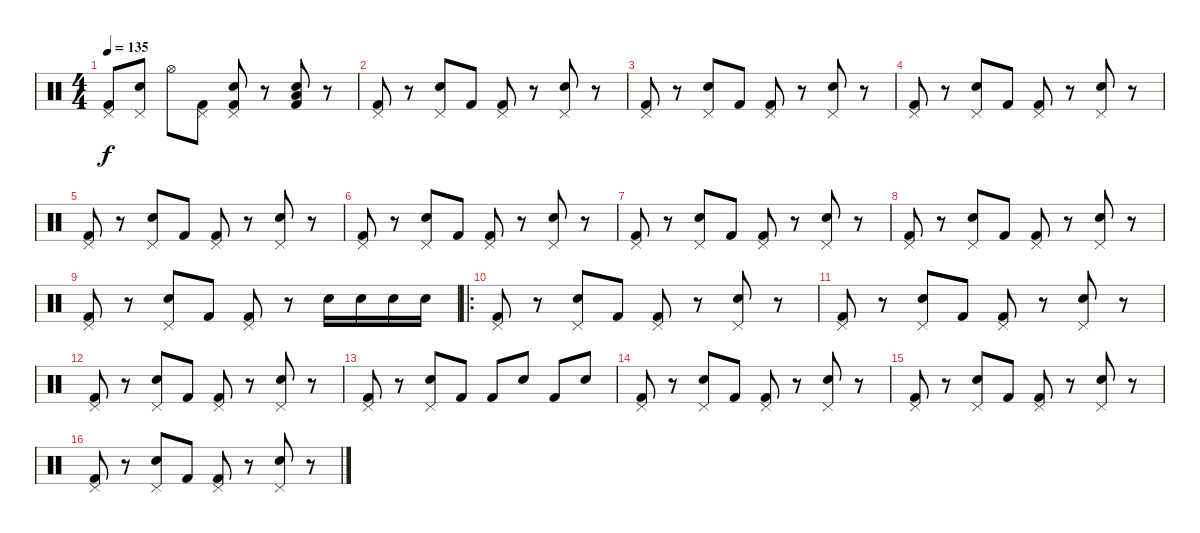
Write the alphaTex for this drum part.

\track "" {instrument percussion}
\staff {score}
\articulation defaults
\ts (4 4)
\tempo 135
\clef neutral
\ks c
("Kick (hit) 2" "Pedal Hi-Hat (hit)").8{dy f} ("Electric Snare (hit)" "Pedal Hi-Hat (hit)").8 "Hi-Hat (open)".8 ("Kick (hit) 2" "Pedal Hi-Hat (hit)").8 ("Electric Snare (hit)" "Pedal Hi-Hat (hit)" "Kick (hit) 2").8 r.8 ("Electric Snare (hit)" "Low Tom (hit)" "Kick (hit) 2").8 r.8 |
("Kick (hit) 2" "Pedal Hi-Hat (hit)").8 r.8 ("Electric Snare (hit)" "Pedal Hi-Hat (hit)").8 "Kick (hit) 2".8 ("Kick (hit) 2" "Pedal Hi-Hat (hit)").8 r.8 ("Electric Snare (hit)" "Pedal Hi-Hat (hit)").8 r.8 |
("Kick (hit) 2" "Pedal Hi-Hat (hit)").8 r.8 ("Electric Snare (hit)" "Pedal Hi-Hat (hit)").8 "Kick (hit) 2".8 ("Kick (hit) 2" "Pedal Hi-Hat (hit)").8 r.8 ("Electric Snare (hit)" "Pedal Hi-Hat (hit)").8 r.8 |
("Kick (hit) 2" "Pedal Hi-Hat (hit)").8 r.8 ("Electric Snare (hit)" "Pedal Hi-Hat (hit)").8 "Kick (hit) 2".8 ("Kick (hit) 2" "Pedal Hi-Hat (hit)").8 r.8 ("Electric Snare (hit)" "Pedal Hi-Hat (hit)").8 r.8 |
("Kick (hit) 2" "Pedal Hi-Hat (hit)").8 r.8 ("Electric Snare (hit)" "Pedal Hi-Hat (hit)").8 "Kick (hit) 2".8 ("Kick (hit) 2" "Pedal Hi-Hat (hit)").8 r.8 ("Electric Snare (hit)" "Pedal Hi-Hat (hit)").8 r.8 |
("Kick (hit) 2" "Pedal Hi-Hat (hit)").8 r.8 ("Electric Snare (hit)" "Pedal Hi-Hat (hit)").8 "Kick (hit) 2".8 ("Kick (hit) 2" "Pedal Hi-Hat (hit)").8 r.8 ("Electric Snare (hit)" "Pedal Hi-Hat (hit)").8 r.8 |
("Kick (hit) 2" "Pedal Hi-Hat (hit)").8 r.8 ("Electric Snare (hit)" "Pedal Hi-Hat (hit)").8 "Kick (hit) 2".8 ("Kick (hit) 2" "Pedal Hi-Hat (hit)").8 r.8 ("Electric Snare (hit)" "Pedal Hi-Hat (hit)").8 r.8 |
("Kick (hit) 2" "Pedal Hi-Hat (hit)").8 r.8 ("Electric Snare (hit)" "Pedal Hi-Hat (hit)").8 "Kick (hit) 2".8 ("Kick (hit) 2" "Pedal Hi-Hat (hit)").8 r.8 ("Electric Snare (hit)" "Pedal Hi-Hat (hit)").8 r.8 |
("Kick (hit) 2" "Pedal Hi-Hat (hit)").8 r.8 ("Electric Snare (hit)" "Pedal Hi-Hat (hit)").8 "Kick (hit) 2".8 ("Kick (hit) 2" "Pedal Hi-Hat (hit)").8 r.8 "Electric Snare (hit)".16 "Electric Snare (hit)".16 "Electric Snare (hit)".16 "Electric Snare (hit)".16 |
\ro
("Kick (hit) 2" "Pedal Hi-Hat (hit)").8 r.8 ("Electric Snare (hit)" "Pedal Hi-Hat (hit)").8 "Kick (hit) 2".8 ("Kick (hit) 2" "Pedal Hi-Hat (hit)").8 r.8 ("Electric Snare (hit)" "Pedal Hi-Hat (hit)").8 r.8 |
("Kick (hit) 2" "Pedal Hi-Hat (hit)").8 r.8 ("Electric Snare (hit)" "Pedal Hi-Hat (hit)").8 "Kick (hit) 2".8 ("Kick (hit) 2" "Pedal Hi-Hat (hit)").8 r.8 ("Electric Snare (hit)" "Pedal Hi-Hat (hit)").8 r.8 |
("Kick (hit) 2" "Pedal Hi-Hat (hit)").8 r.8 ("Electric Snare (hit)" "Pedal Hi-Hat (hit)").8 "Kick (hit) 2".8 ("Kick (hit) 2" "Pedal Hi-Hat (hit)").8 r.8 ("Electric Snare (hit)" "Pedal Hi-Hat (hit)").8 r.8 |
("Kick (hit) 2" "Pedal Hi-Hat (hit)").8 r.8 ("Electric Snare (hit)" "Pedal Hi-Hat (hit)").8 "Kick (hit) 2".8 "Kick (hit) 2".8 "Electric Snare (hit)".8 "Kick (hit) 2".8 "Electric Snare (hit)".8 |
("Kick (hit) 2" "Pedal Hi-Hat (hit)").8 r.8 ("Electric Snare (hit)" "Pedal Hi-Hat (hit)").8 "Kick (hit) 2".8 ("Kick (hit) 2" "Pedal Hi-Hat (hit)").8 r.8 ("Electric Snare (hit)" "Pedal Hi-Hat (hit)").8 r.8 |
("Kick (hit) 2" "Pedal Hi-Hat (hit)").8 r.8 ("Electric Snare (hit)" "Pedal Hi-Hat (hit)").8 "Kick (hit) 2".8 ("Kick (hit) 2" "Pedal Hi-Hat (hit)").8 r.8 ("Electric Snare (hit)" "Pedal Hi-Hat (hit)").8 r.8 |
("Kick (hit) 2" "Pedal Hi-Hat (hit)").8 r.8 ("Electric Snare (hit)" "Pedal Hi-Hat (hit)").8 "Kick (hit) 2".8 ("Kick (hit) 2" "Pedal Hi-Hat (hit)").8 r.8 ("Electric Snare (hit)" "Pedal Hi-Hat (hit)").8 r.8
